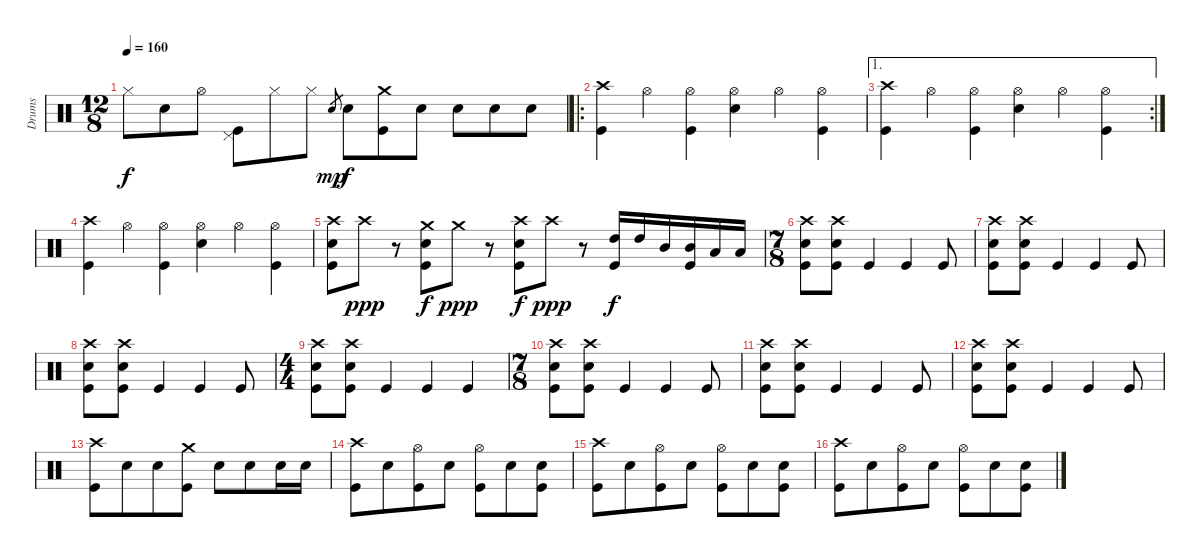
\track ("Drums" "Drums") {instrument percussion}
\staff {score}
\articulation defaults
\ts (12 8)
\tempo 160
\clef neutral
\ks c "Hi-Hat (closed)".8{dy f} "Electric Snare (hit)".8 "Hi-Hat (open)".8
("Pedal Hi-Hat (hit)" "Kick (hit)").8 "Hi-Hat (closed)".8 "Hi-Hat (closed)".8 "Electric Snare (hit)".8{gr dy mp} "Electric Snare (hit)".8{dy f} ("Crash medium (hit)" "Kick (hit)").8 "Electric Snare (hit)".8 "Electric Snare (hit)".8 "Electric Snare (hit)".8 "Electric Snare (hit)".8 |
\ro
("Crash high (hit)" "Kick (hit)").4 "Hi-Hat (open)".4 ("Hi-Hat (open)" "Kick (hit)").4 ("Hi-Hat (open)" "Electric Snare (hit)").4 "Hi-Hat (open)".4 ("Hi-Hat (open)" "Kick (hit)").4 |
\ae 1
\rc 2
("Crash high (hit)" "Kick (hit)").4 "Hi-Hat (open)".4 ("Hi-Hat (open)" "Kick (hit)").4 ("Hi-Hat (open)" "Electric Snare (hit)").4 "Hi-Hat (open)".4 ("Hi-Hat (open)" "Kick (hit)").4 |
("Crash high (hit)" "Kick (hit)").4 "Hi-Hat (open)".4 ("Hi-Hat (open)" "Kick (hit)").4 ("Hi-Hat (open)" "Electric Snare (hit)").4 "Hi-Hat (open)".4 ("Hi-Hat (open)" "Kick (hit)").4 |
("Crash high (hit)" "Electric Snare (hit)" "Kick (hit)").8 "Crash high (hit)".8{dy ppp} r.8 ("Crash medium (hit)" "Electric Snare (hit)" "Kick (hit)").8{dy f} "Crash medium (hit)".8{dy ppp} r.8 ("Crash high (hit)" "Electric Snare (hit)" "Kick (hit)").8{dy f} "Crash high (hit)".8{dy ppp} r.8 ("High Tom (hit)" "Kick (hit)").16{dy f} "High Tom (hit)".16 "Mid Tom (hit)".16 ("Mid Tom (hit)" "Kick (hit)").16 "Low Tom (hit)".16 "Low Tom (hit)".16 |
\ts (7 8)
("Crash high (hit)" "Electric Snare (hit)" "Kick (hit)").8 ("Crash high (hit)" "Electric Snare (hit)" "Kick (hit)").8 "Kick (hit)".4 "Kick (hit)".4 "Kick (hit)".8 |
("Crash high (hit)" "Electric Snare (hit)" "Kick (hit)").8 ("Crash high (hit)" "Electric Snare (hit)" "Kick (hit)").8 "Kick (hit)".4 "Kick (hit)".4 "Kick (hit)".8 |
("Crash high (hit)" "Electric Snare (hit)" "Kick (hit)").8 ("Crash high (hit)" "Electric Snare (hit)" "Kick (hit)").8 "Kick (hit)".4 "Kick (hit)".4 "Kick (hit)".8 |
\ts (4 4)
("Crash high (hit)" "Electric Snare (hit)" "Kick (hit)").8 ("Crash high (hit)" "Electric Snare (hit)" "Kick (hit)").8 "Kick (hit)".4 "Kick (hit)".4 "Kick (hit)".4 |
\ts (7 8)
("Crash high (hit)" "Electric Snare (hit)" "Kick (hit)").8 ("Crash high (hit)" "Electric Snare (hit)" "Kick (hit)").8 "Kick (hit)".4 "Kick (hit)".4 "Kick (hit)".8 |
("Crash high (hit)" "Electric Snare (hit)" "Kick (hit)").8 ("Crash high (hit)" "Electric Snare (hit)" "Kick (hit)").8 "Kick (hit)".4 "Kick (hit)".4 "Kick (hit)".8 |
("Crash high (hit)" "Electric Snare (hit)" "Kick (hit)").8 ("Crash high (hit)" "Electric Snare (hit)" "Kick (hit)").8 "Kick (hit)".4 "Kick (hit)".4 "Kick (hit)".8 |
("Crash high (hit)" "Kick (hit)").8 "Electric Snare (hit)".8 "Electric Snare (hit)".8 ("Crash medium (hit)" "Kick (hit)").8 "Electric Snare (hit)".8 "Electric Snare (hit)".8 "Electric Snare (hit)".16 "Electric Snare (hit)".16 |
("Crash high (hit)" "Kick (hit)").8 "Electric Snare (hit)".8 ("Hi-Hat (open)" "Kick (hit)").8 "Electric Snare (hit)".8 ("Hi-Hat (open)" "Kick (hit)").8 "Electric Snare (hit)".8 ("Electric Snare (hit)" "Kick (hit)").8 |
("Crash high (hit)" "Kick (hit)").8 "Electric Snare (hit)".8 ("Hi-Hat (open)" "Kick (hit)").8 "Electric Snare (hit)".8 ("Hi-Hat (open)" "Kick (hit)").8 "Electric Snare (hit)".8 ("Electric Snare (hit)" "Kick (hit)").8 |
("Crash high (hit)" "Kick (hit)").8 "Electric Snare (hit)".8 ("Hi-Hat (open)" "Kick (hit)").8 "Electric Snare (hit)".8 ("Hi-Hat (open)" "Kick (hit)").8 "Electric Snare (hit)".8 ("Electric Snare (hit)" "Kick (hit)").8
